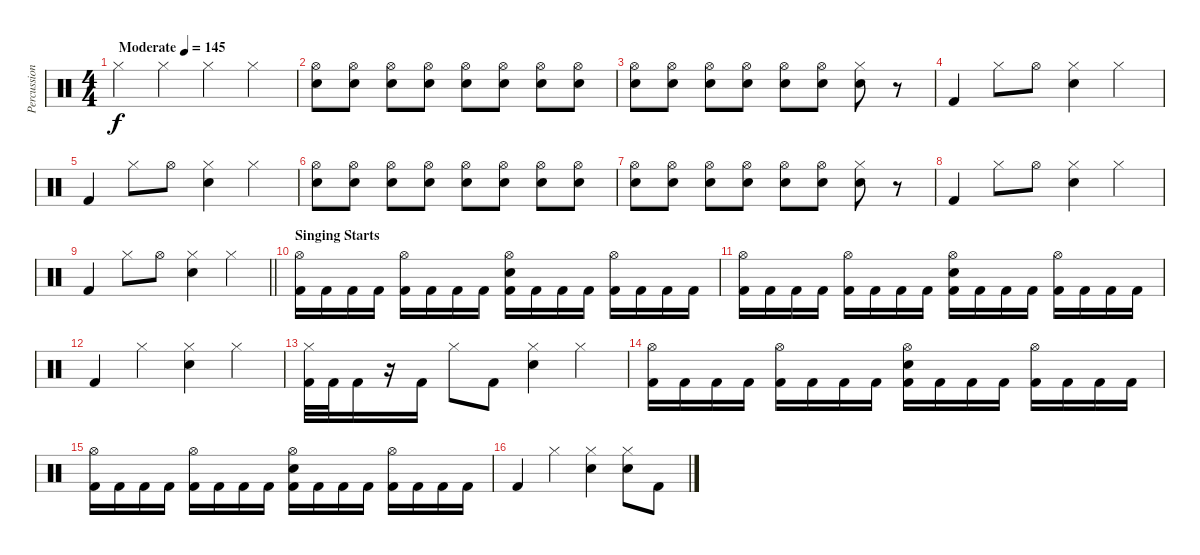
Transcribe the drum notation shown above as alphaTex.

\track ("Percussion" "Percussion") {instrument percussion}
\staff {score}
\articulation defaults
\ts (4 4)
\tempo (145 "Moderate")
\clef neutral
\ks c "Hi-Hat (closed)".4{dy f} "Hi-Hat (closed)".4 "Hi-Hat (closed)".4 "Hi-Hat (closed)".4
|
("Hi-Hat (open)" "Electric Snare (hit)").8 ("Hi-Hat (open)" "Electric Snare (hit)").8 ("Hi-Hat (open)" "Electric Snare (hit)").8 ("Hi-Hat (open)" "Electric Snare (hit)").8 ("Hi-Hat (open)" "Electric Snare (hit)").8 ("Hi-Hat (open)" "Electric Snare (hit)").8 ("Hi-Hat (open)" "Electric Snare (hit)").8 ("Hi-Hat (open)" "Electric Snare (hit)").8 |
("Hi-Hat (open)" "Electric Snare (hit)").8 ("Hi-Hat (open)" "Electric Snare (hit)").8 ("Hi-Hat (open)" "Electric Snare (hit)").8 ("Hi-Hat (open)" "Electric Snare (hit)").8 ("Hi-Hat (open)" "Electric Snare (hit)").8 ("Hi-Hat (open)" "Electric Snare (hit)").8 ("Hi-Hat (closed)" "Electric Snare (hit)").8 r.8 |
"Kick (hit) 2".4 "Hi-Hat (closed)".8 "Hi-Hat (open)".8 ("Hi-Hat (closed)" "Electric Snare (hit)").4 "Hi-Hat (closed)".4 |
"Kick (hit) 2".4 "Hi-Hat (closed)".8 "Hi-Hat (open)".8 ("Hi-Hat (closed)" "Electric Snare (hit)").4 "Hi-Hat (closed)".4 |
("Hi-Hat (open)" "Electric Snare (hit)").8 ("Hi-Hat (open)" "Electric Snare (hit)").8 ("Hi-Hat (open)" "Electric Snare (hit)").8 ("Hi-Hat (open)" "Electric Snare (hit)").8 ("Hi-Hat (open)" "Electric Snare (hit)").8 ("Hi-Hat (open)" "Electric Snare (hit)").8 ("Hi-Hat (open)" "Electric Snare (hit)").8 ("Hi-Hat (open)" "Electric Snare (hit)").8 |
("Hi-Hat (open)" "Electric Snare (hit)").8 ("Hi-Hat (open)" "Electric Snare (hit)").8 ("Hi-Hat (open)" "Electric Snare (hit)").8 ("Hi-Hat (open)" "Electric Snare (hit)").8 ("Hi-Hat (open)" "Electric Snare (hit)").8 ("Hi-Hat (open)" "Electric Snare (hit)").8 ("Hi-Hat (closed)" "Electric Snare (hit)").8 r.8 |
"Kick (hit) 2".4 "Hi-Hat (closed)".8 "Hi-Hat (open)".8 ("Hi-Hat (closed)" "Electric Snare (hit)").4 "Hi-Hat (closed)".4 |
\barLineRight lightlight "Kick (hit) 2".4 "Hi-Hat (closed)".8 "Hi-Hat (open)".8
("Hi-Hat (closed)" "Electric Snare (hit)").4 "Hi-Hat (closed)".4 |
\section ("" "Singing Starts")
("Hi-Hat (open)" "Kick (hit) 2").16 "Kick (hit) 2".16 "Kick (hit) 2".16 "Kick (hit) 2".16 ("Hi-Hat (open)" "Kick (hit) 2").16 "Kick (hit) 2".16 "Kick (hit) 2".16 "Kick (hit) 2".16 ("Hi-Hat (open)" "Electric Snare (hit)" "Kick (hit) 2").16 "Kick (hit) 2".16 "Kick (hit) 2".16 "Kick (hit) 2".16 ("Hi-Hat (open)" "Kick (hit) 2").16 "Kick (hit) 2".16 "Kick (hit) 2".16 "Kick (hit) 2".16 |
("Hi-Hat (open)" "Kick (hit) 2").16 "Kick (hit) 2".16 "Kick (hit) 2".16 "Kick (hit) 2".16 ("Hi-Hat (open)" "Kick (hit) 2").16 "Kick (hit) 2".16 "Kick (hit) 2".16 "Kick (hit) 2".16 ("Hi-Hat (open)" "Electric Snare (hit)" "Kick (hit) 2").16 "Kick (hit) 2".16 "Kick (hit) 2".16 "Kick (hit) 2".16 ("Hi-Hat (open)" "Kick (hit) 2").16 "Kick (hit) 2".16 "Kick (hit) 2".16 "Kick (hit) 2".16 |
"Kick (hit) 2".4 "Hi-Hat (closed)".4 ("Hi-Hat (closed)" "Electric Snare (hit)").4 "Hi-Hat (closed)".4 |
("Kick (hit) 2" "Hi-Hat (closed)").32 "Kick (hit) 2".32 "Kick (hit) 2".16 r.16 "Kick (hit) 2".16 "Hi-Hat (closed)".8 "Kick (hit) 2".8 ("Electric Snare (hit)" "Hi-Hat (closed)").4 "Hi-Hat (closed)".4 |
("Hi-Hat (open)" "Kick (hit) 2").16 "Kick (hit) 2".16 "Kick (hit) 2".16 "Kick (hit) 2".16 ("Hi-Hat (open)" "Kick (hit) 2").16 "Kick (hit) 2".16 "Kick (hit) 2".16 "Kick (hit) 2".16 ("Hi-Hat (open)" "Electric Snare (hit)" "Kick (hit) 2").16 "Kick (hit) 2".16 "Kick (hit) 2".16 "Kick (hit) 2".16 ("Hi-Hat (open)" "Kick (hit) 2").16 "Kick (hit) 2".16 "Kick (hit) 2".16 "Kick (hit) 2".16 |
("Hi-Hat (open)" "Kick (hit) 2").16 "Kick (hit) 2".16 "Kick (hit) 2".16 "Kick (hit) 2".16 ("Hi-Hat (open)" "Kick (hit) 2").16 "Kick (hit) 2".16 "Kick (hit) 2".16 "Kick (hit) 2".16 ("Hi-Hat (open)" "Electric Snare (hit)" "Kick (hit) 2").16 "Kick (hit) 2".16 "Kick (hit) 2".16 "Kick (hit) 2".16 ("Hi-Hat (open)" "Kick (hit) 2").16 "Kick (hit) 2".16 "Kick (hit) 2".16 "Kick (hit) 2".16 |
"Kick (hit) 2".4 "Hi-Hat (closed)".4 ("Hi-Hat (closed)" "Electric Snare (hit)").4 ("Hi-Hat (closed)" "Electric Snare (hit)").8 "Kick (hit) 2".8
